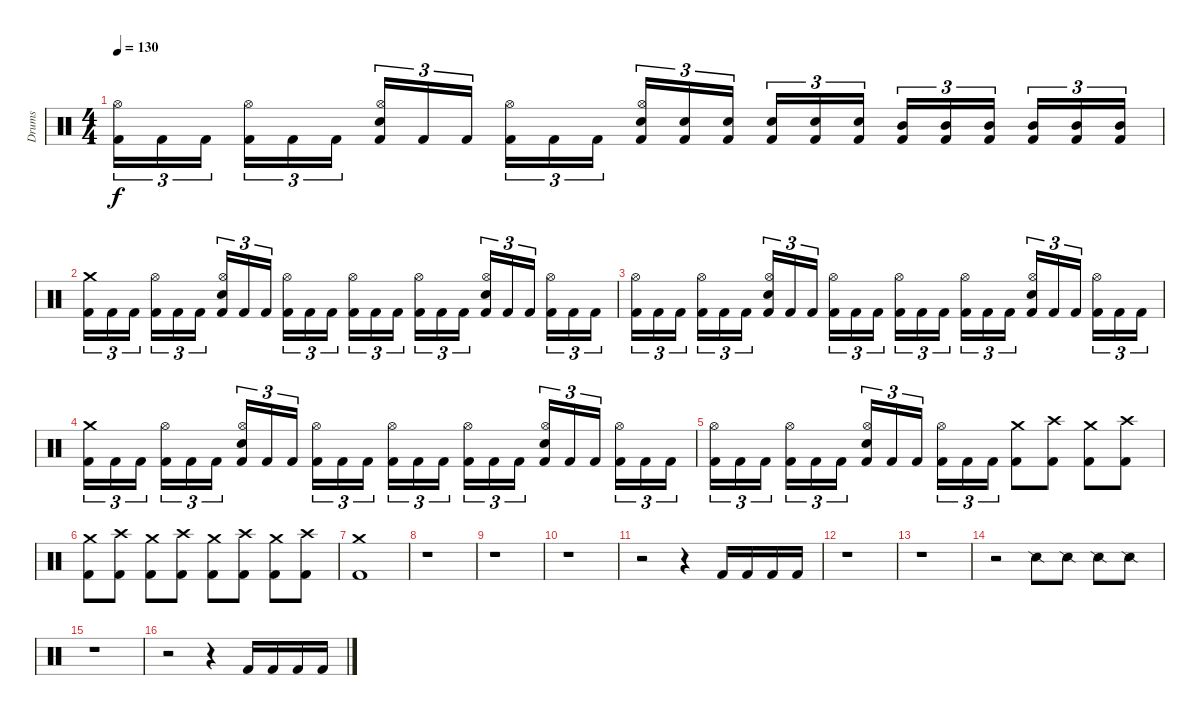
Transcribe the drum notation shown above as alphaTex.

\track ("Drums" "Drums") {instrument percussion}
\staff {score}
\articulation defaults
\ts (4 4)
\tempo 130
\clef neutral
\ks c
("Kick (hit) 2" "Hi-Hat (open)").16{tu (3 2) dy f} "Kick (hit) 2".16{tu (3 2)} "Kick (hit) 2".16{tu (3 2)} ("Kick (hit) 2" "Hi-Hat (open)").16{tu (3 2)} "Kick (hit) 2".16{tu (3 2)} "Kick (hit) 2".16{tu (3 2)} ("Kick (hit) 2" "Electric Snare (hit)" "Hi-Hat (open)").16{tu (3 2)} "Kick (hit) 2".16{tu (3 2)} "Kick (hit) 2".16{tu (3 2)} ("Kick (hit) 2" "Hi-Hat (open)").16{tu (3 2)} "Kick (hit) 2".16{tu (3 2)} "Kick (hit) 2".16{tu (3 2)} ("Kick (hit) 2" "Electric Snare (hit)" "Hi-Hat (open)").16{tu (3 2)} ("Kick (hit) 2" "Electric Snare (hit)").16{tu (3 2)} ("Kick (hit) 2" "Electric Snare (hit)").16{tu (3 2)} ("Kick (hit) 2" "Electric Snare (hit)").16{tu (3 2)} ("Kick (hit) 2" "Electric Snare (hit)").16{tu (3 2)} ("Kick (hit) 2" "Electric Snare (hit)").16{tu (3 2)} ("Kick (hit) 2" "Mid Tom (hit)").16{tu (3 2)} ("Kick (hit) 2" "Mid Tom (hit)").16{tu (3 2)} ("Kick (hit) 2" "Mid Tom (hit)").16{tu (3 2)} ("Kick (hit) 2" "Mid Tom (hit)").16{tu (3 2)} ("Kick (hit) 2" "Mid Tom (hit)").16{tu (3 2)} ("Kick (hit) 2" "Mid Tom (hit)").16{tu (3 2)} |
("Kick (hit) 2" "Crash medium (hit)").16{tu (3 2)} "Kick (hit) 2".16{tu (3 2)} "Kick (hit) 2".16{tu (3 2)} ("Kick (hit) 2" "Hi-Hat (open)").16{tu (3 2)} "Kick (hit) 2".16{tu (3 2)} "Kick (hit) 2".16{tu (3 2)} ("Kick (hit) 2" "Electric Snare (hit)" "Hi-Hat (open)").16{tu (3 2)} "Kick (hit) 2".16{tu (3 2)} "Kick (hit) 2".16{tu (3 2)} ("Kick (hit) 2" "Hi-Hat (open)").16{tu (3 2)} "Kick (hit) 2".16{tu (3 2)} "Kick (hit) 2".16{tu (3 2)} ("Kick (hit) 2" "Hi-Hat (open)").16{tu (3 2)} "Kick (hit) 2".16{tu (3 2)} "Kick (hit) 2".16{tu (3 2)} ("Kick (hit) 2" "Hi-Hat (open)").16{tu (3 2)} "Kick (hit) 2".16{tu (3 2)} "Kick (hit) 2".16{tu (3 2)} ("Kick (hit) 2" "Electric Snare (hit)" "Hi-Hat (open)").16{tu (3 2)} "Kick (hit) 2".16{tu (3 2)} "Kick (hit) 2".16{tu (3 2)} ("Kick (hit) 2" "Hi-Hat (open)").16{tu (3 2)} "Kick (hit) 2".16{tu (3 2)} "Kick (hit) 2".16{tu (3 2)} |
("Kick (hit) 2" "Hi-Hat (open)").16{tu (3 2)} "Kick (hit) 2".16{tu (3 2)} "Kick (hit) 2".16{tu (3 2)} ("Kick (hit) 2" "Hi-Hat (open)").16{tu (3 2)} "Kick (hit) 2".16{tu (3 2)} "Kick (hit) 2".16{tu (3 2)} ("Kick (hit) 2" "Electric Snare (hit)" "Hi-Hat (open)").16{tu (3 2)} "Kick (hit) 2".16{tu (3 2)} "Kick (hit) 2".16{tu (3 2)} ("Kick (hit) 2" "Hi-Hat (open)").16{tu (3 2)} "Kick (hit) 2".16{tu (3 2)} "Kick (hit) 2".16{tu (3 2)} ("Kick (hit) 2" "Hi-Hat (open)").16{tu (3 2)} "Kick (hit) 2".16{tu (3 2)} "Kick (hit) 2".16{tu (3 2)} ("Kick (hit) 2" "Hi-Hat (open)").16{tu (3 2)} "Kick (hit) 2".16{tu (3 2)} "Kick (hit) 2".16{tu (3 2)} ("Kick (hit) 2" "Electric Snare (hit)" "Hi-Hat (open)").16{tu (3 2)} "Kick (hit) 2".16{tu (3 2)} "Kick (hit) 2".16{tu (3 2)} ("Kick (hit) 2" "Hi-Hat (open)").16{tu (3 2)} "Kick (hit) 2".16{tu (3 2)} "Kick (hit) 2".16{tu (3 2)} |
("Kick (hit) 2" "Crash medium (hit)").16{tu (3 2)} "Kick (hit) 2".16{tu (3 2)} "Kick (hit) 2".16{tu (3 2)} ("Kick (hit) 2" "Hi-Hat (open)").16{tu (3 2)} "Kick (hit) 2".16{tu (3 2)} "Kick (hit) 2".16{tu (3 2)} ("Kick (hit) 2" "Electric Snare (hit)" "Hi-Hat (open)").16{tu (3 2)} "Kick (hit) 2".16{tu (3 2)} "Kick (hit) 2".16{tu (3 2)} ("Kick (hit) 2" "Hi-Hat (open)").16{tu (3 2)} "Kick (hit) 2".16{tu (3 2)} "Kick (hit) 2".16{tu (3 2)} ("Kick (hit) 2" "Hi-Hat (open)").16{tu (3 2)} "Kick (hit) 2".16{tu (3 2)} "Kick (hit) 2".16{tu (3 2)} ("Kick (hit) 2" "Hi-Hat (open)").16{tu (3 2)} "Kick (hit) 2".16{tu (3 2)} "Kick (hit) 2".16{tu (3 2)} ("Kick (hit) 2" "Electric Snare (hit)" "Hi-Hat (open)").16{tu (3 2)} "Kick (hit) 2".16{tu (3 2)} "Kick (hit) 2".16{tu (3 2)} ("Kick (hit) 2" "Hi-Hat (open)").16{tu (3 2)} "Kick (hit) 2".16{tu (3 2)} "Kick (hit) 2".16{tu (3 2)} |
("Kick (hit) 2" "Hi-Hat (open)").16{tu (3 2)} "Kick (hit) 2".16{tu (3 2)} "Kick (hit) 2".16{tu (3 2)} ("Kick (hit) 2" "Hi-Hat (open)").16{tu (3 2)} "Kick (hit) 2".16{tu (3 2)} "Kick (hit) 2".16{tu (3 2)} ("Kick (hit) 2" "Electric Snare (hit)" "Hi-Hat (open)").16{tu (3 2)} "Kick (hit) 2".16{tu (3 2)} "Kick (hit) 2".16{tu (3 2)} ("Kick (hit) 2" "Hi-Hat (open)").16{tu (3 2)} "Kick (hit) 2".16{tu (3 2)} "Kick (hit) 2".16{tu (3 2)} ("Kick (hit) 2" "Crash medium (hit)").8 ("Kick (hit) 2" "Crash high (hit)").8 ("Kick (hit) 2" "Crash medium (hit)").8 ("Kick (hit) 2" "Crash high (hit)").8 |
("Kick (hit) 2" "Crash medium (hit)").8 ("Kick (hit) 2" "Crash high (hit)").8 ("Kick (hit) 2" "Crash medium (hit)").8 ("Kick (hit) 2" "Crash high (hit)").8 ("Kick (hit) 2" "Crash medium (hit)").8 ("Kick (hit) 2" "Crash high (hit)").8 ("Kick (hit) 2" "Crash medium (hit)").8 ("Kick (hit) 2" "Crash high (hit)").8 |
("Kick (hit) 2" "Crash medium (hit)").1 |
r.1 |
r.1 |
r.1 |
r.2 r.4 "Kick (hit) 2".16 "Kick (hit) 2".16 "Kick (hit) 2".16 "Kick (hit) 2".16 |
r.1 |
r.1 |
r.2 "Snare (side stick) 2".8{volume 10} "Snare (side stick) 2".8 "Snare (side stick) 2".8 "Snare (side stick) 2".8 |
r.1 |
r.2 r.4 "Kick (hit) 2".16 "Kick (hit) 2".16 "Kick (hit) 2".16 "Kick (hit) 2".16
